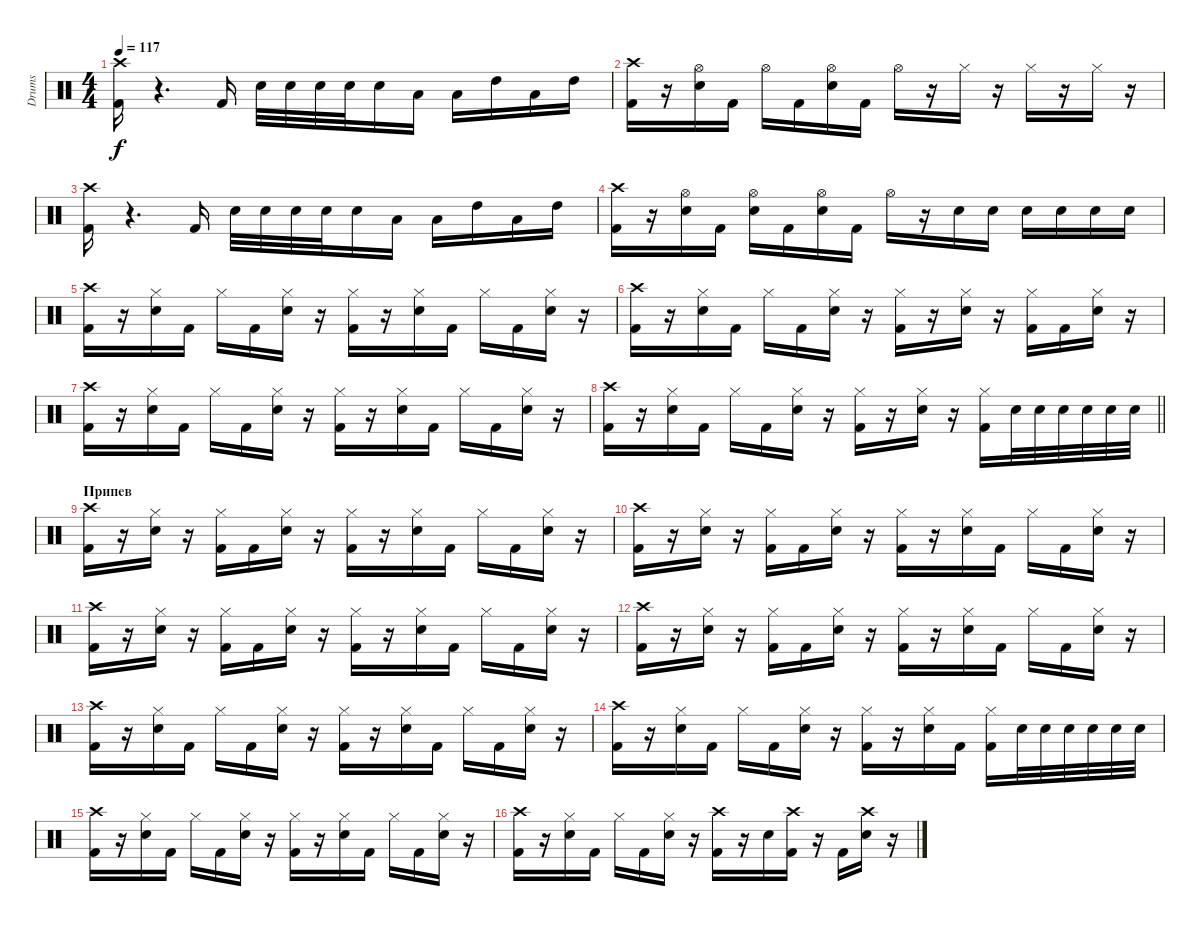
\track ("Drums" "Drums") {instrument percussion}
\staff {score}
\articulation defaults
\ts (4 4)
\tempo 117
\clef neutral
\ks c
("Kick (hit) 2" "Crash high (hit)").16{dy f} r.4{d} "Kick (hit) 2".16 "Snare (hit) 2".32 "Snare (hit) 2".32 "Snare (hit) 2".32 "Snare (hit) 2".32 "Snare (hit) 2".16 "Low Floor Tom (hit)".16 "Low Tom (hit)".16 "High Tom (hit)".16 "Low Tom (hit)".16 "High Tom (hit)".16 |
("Kick (hit) 2" "Crash high (hit)").16 r.16 ("Snare (hit) 2" "Hi-Hat (open)").16 "Kick (hit) 2".16 "Hi-Hat (open)".16 "Kick (hit) 2".16 ("Snare (hit) 2" "Hi-Hat (open)").16 "Kick (hit) 2".16 "Hi-Hat (open)".16 r.16 "Hi-Hat (closed)".16 r.16 "Hi-Hat (closed)".16 r.16 "Hi-Hat (closed)".16 r.16 |
("Kick (hit) 2" "Crash high (hit)").16 r.4{d} "Kick (hit) 2".16 "Snare (hit) 2".32 "Snare (hit) 2".32 "Snare (hit) 2".32 "Snare (hit) 2".32 "Snare (hit) 2".16 "Low Floor Tom (hit)".16 "Low Tom (hit)".16 "High Tom (hit)".16 "Low Tom (hit)".16 "High Tom (hit)".16 |
("Kick (hit) 2" "Crash high (hit)").16 r.16 ("Snare (hit) 2" "Hi-Hat (open)").16 "Kick (hit) 2".16 ("Snare (hit) 2" "Hi-Hat (open)").16 "Kick (hit) 2".16 ("Snare (hit) 2" "Hi-Hat (open)").16 "Kick (hit) 2".16 "Hi-Hat (open)".16 r.16 "Snare (hit) 2".16 "Snare (hit) 2".16 "Snare (hit) 2".16 "Snare (hit) 2".16 "Snare (hit) 2".16 "Snare (hit) 2".16 |
("Kick (hit) 2" "Crash high (hit)").16 r.16 ("Snare (hit) 2" "Hi-Hat (closed)").16 "Kick (hit) 2".16 "Hi-Hat (closed)".16 "Kick (hit) 2".16 ("Snare (hit) 2" "Hi-Hat (closed)").16 r.16 ("Kick (hit) 2" "Hi-Hat (closed)").16 r.16 ("Snare (hit) 2" "Hi-Hat (closed)").16 "Kick (hit) 2".16 "Hi-Hat (closed)".16 "Kick (hit) 2".16 ("Snare (hit) 2" "Hi-Hat (closed)").16 r.16 |
("Kick (hit) 2" "Crash high (hit)").16 r.16 ("Snare (hit) 2" "Hi-Hat (closed)").16 "Kick (hit) 2".16 "Hi-Hat (closed)".16 "Kick (hit) 2".16 ("Snare (hit) 2" "Hi-Hat (closed)").16 r.16 ("Kick (hit) 2" "Hi-Hat (closed)").16 r.16 ("Snare (hit) 2" "Hi-Hat (closed)").16 r.16 ("Hi-Hat (closed)" "Kick (hit) 2").16 "Kick (hit) 2".16 ("Snare (hit) 2" "Hi-Hat (closed)").16 r.16 |
("Kick (hit) 2" "Crash high (hit)").16 r.16 ("Snare (hit) 2" "Hi-Hat (closed)").16 "Kick (hit) 2".16 "Hi-Hat (closed)".16 "Kick (hit) 2".16 ("Snare (hit) 2" "Hi-Hat (closed)").16 r.16 ("Kick (hit) 2" "Hi-Hat (closed)").16 r.16 ("Snare (hit) 2" "Hi-Hat (closed)").16 "Kick (hit) 2".16 "Hi-Hat (closed)".16 "Kick (hit) 2".16 ("Snare (hit) 2" "Hi-Hat (closed)").16 r.16 |
\barLineRight lightlight
("Kick (hit) 2" "Crash high (hit)").16 r.16 ("Snare (hit) 2" "Hi-Hat (closed)").16 "Kick (hit) 2".16 "Hi-Hat (closed)".16 "Kick (hit) 2".16 ("Snare (hit) 2" "Hi-Hat (closed)").16 r.16 ("Kick (hit) 2" "Hi-Hat (closed)").16 r.16 ("Snare (hit) 2" "Hi-Hat (closed)").16 r.16 ("Hi-Hat (closed)" "Kick (hit) 2").16 "Snare (hit) 2".32 "Snare (hit) 2".32 "Snare (hit) 2".32 "Snare (hit) 2".32 "Snare (hit) 2".32 "Snare (hit) 2".32 |
\section ("" "Припев")
("Kick (hit) 2" "Crash high (hit)").16 r.16 ("Snare (hit) 2" "Hi-Hat (closed)").16 r.16 ("Kick (hit) 2" "Hi-Hat (closed)").16 "Kick (hit) 2".16 ("Snare (hit) 2" "Hi-Hat (closed)").16 r.16 ("Kick (hit) 2" "Hi-Hat (closed)").16 r.16 ("Snare (hit) 2" "Hi-Hat (closed)").16 "Kick (hit) 2".16 "Hi-Hat (closed)".16 "Kick (hit) 2".16 ("Snare (hit) 2" "Hi-Hat (closed)").16 r.16 |
("Kick (hit) 2" "Crash high (hit)").16 r.16 ("Snare (hit) 2" "Hi-Hat (closed)").16 r.16 ("Kick (hit) 2" "Hi-Hat (closed)").16 "Kick (hit) 2".16 ("Snare (hit) 2" "Hi-Hat (closed)").16 r.16 ("Kick (hit) 2" "Hi-Hat (closed)").16 r.16 ("Snare (hit) 2" "Hi-Hat (closed)").16 "Kick (hit) 2".16 "Hi-Hat (closed)".16 "Kick (hit) 2".16 ("Snare (hit) 2" "Hi-Hat (closed)").16 r.16 |
("Kick (hit) 2" "Crash high (hit)").16 r.16 ("Snare (hit) 2" "Hi-Hat (closed)").16 r.16 ("Kick (hit) 2" "Hi-Hat (closed)").16 "Kick (hit) 2".16 ("Snare (hit) 2" "Hi-Hat (closed)").16 r.16 ("Kick (hit) 2" "Hi-Hat (closed)").16 r.16 ("Snare (hit) 2" "Hi-Hat (closed)").16 "Kick (hit) 2".16 "Hi-Hat (closed)".16 "Kick (hit) 2".16 ("Snare (hit) 2" "Hi-Hat (closed)").16 r.16 |
("Kick (hit) 2" "Crash high (hit)").16 r.16 ("Snare (hit) 2" "Hi-Hat (closed)").16 r.16 ("Kick (hit) 2" "Hi-Hat (closed)").16 "Kick (hit) 2".16 ("Snare (hit) 2" "Hi-Hat (closed)").16 r.16 ("Kick (hit) 2" "Hi-Hat (closed)").16 r.16 ("Snare (hit) 2" "Hi-Hat (closed)").16 "Kick (hit) 2".16 "Hi-Hat (closed)".16 "Kick (hit) 2".16 ("Snare (hit) 2" "Hi-Hat (closed)").16 r.16 |
("Kick (hit) 2" "Crash high (hit)").16 r.16 ("Snare (hit) 2" "Hi-Hat (closed)").16 "Kick (hit) 2".16 "Hi-Hat (closed)".16 "Kick (hit) 2".16 ("Snare (hit) 2" "Hi-Hat (closed)").16 r.16 ("Kick (hit) 2" "Hi-Hat (closed)").16 r.16 ("Snare (hit) 2" "Hi-Hat (closed)").16 "Kick (hit) 2".16 "Hi-Hat (closed)".16 "Kick (hit) 2".16 ("Snare (hit) 2" "Hi-Hat (closed)").16 r.16 |
("Kick (hit) 2" "Crash high (hit)").16 r.16 ("Snare (hit) 2" "Hi-Hat (closed)").16 "Kick (hit) 2".16 "Hi-Hat (closed)".16 "Kick (hit) 2".16 ("Snare (hit) 2" "Hi-Hat (closed)").16 r.16 ("Kick (hit) 2" "Hi-Hat (closed)").16 r.16 ("Snare (hit) 2" "Hi-Hat (closed)").16 "Kick (hit) 2".16 ("Hi-Hat (closed)" "Kick (hit) 2").16 "Snare (hit) 2".32 "Snare (hit) 2".32 "Snare (hit) 2".32 "Snare (hit) 2".32 "Snare (hit) 2".32 "Snare (hit) 2".32 |
("Kick (hit) 2" "Crash high (hit)").16 r.16 ("Snare (hit) 2" "Hi-Hat (closed)").16 "Kick (hit) 2".16 "Hi-Hat (closed)".16 "Kick (hit) 2".16 ("Snare (hit) 2" "Hi-Hat (closed)").16 r.16 ("Kick (hit) 2" "Hi-Hat (closed)").16 r.16 ("Snare (hit) 2" "Hi-Hat (closed)").16 "Kick (hit) 2".16 "Hi-Hat (closed)".16 "Kick (hit) 2".16 ("Snare (hit) 2" "Hi-Hat (closed)").16 r.16 |
("Kick (hit) 2" "Crash high (hit)").16 r.16 ("Snare (hit) 2" "Hi-Hat (closed)").16 "Kick (hit) 2".16 "Hi-Hat (closed)".16 "Kick (hit) 2".16 ("Snare (hit) 2" "Hi-Hat (closed)").16 r.16 ("Kick (hit) 2" "Crash high (hit)").16 r.16 "Snare (hit) 2".16 ("Kick (hit) 2" "Crash high (hit)").16 r.16 "Kick (hit) 2".16 ("Snare (hit) 2" "Crash high (hit)").16 r.16
